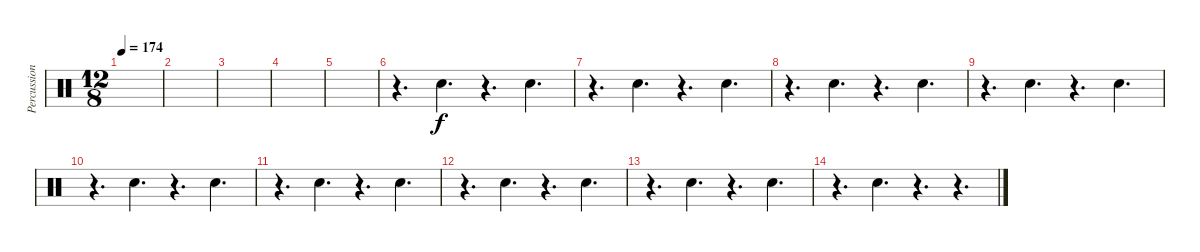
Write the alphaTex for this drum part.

\track ("Percussion" "Percussion") {instrument percussion}
\staff {score}
\articulation defaults
\ts (12 8)
\tempo 174
\clef neutral
\ks c
|
|
|
|
|
r.4{d} "Hand Clap (hit)".4{d} r.4{d} "Hand Clap (hit)".4{d} |
r.4{d} "Hand Clap (hit)".4{d} r.4{d} "Hand Clap (hit)".4{d} |
r.4{d} "Hand Clap (hit)".4{d} r.4{d} "Hand Clap (hit)".4{d} |
r.4{d} "Hand Clap (hit)".4{d} r.4{d} "Hand Clap (hit)".4{d} |
r.4{d} "Hand Clap (hit)".4{d} r.4{d} "Hand Clap (hit)".4{d} |
r.4{d} "Hand Clap (hit)".4{d} r.4{d} "Hand Clap (hit)".4{d} |
r.4{d} "Hand Clap (hit)".4{d} r.4{d} "Hand Clap (hit)".4{d} |
r.4{d} "Hand Clap (hit)".4{d} r.4{d} "Hand Clap (hit)".4{d} |
r.4{d} "Hand Clap (hit)".4{d} r.4{d} r.4{d}
